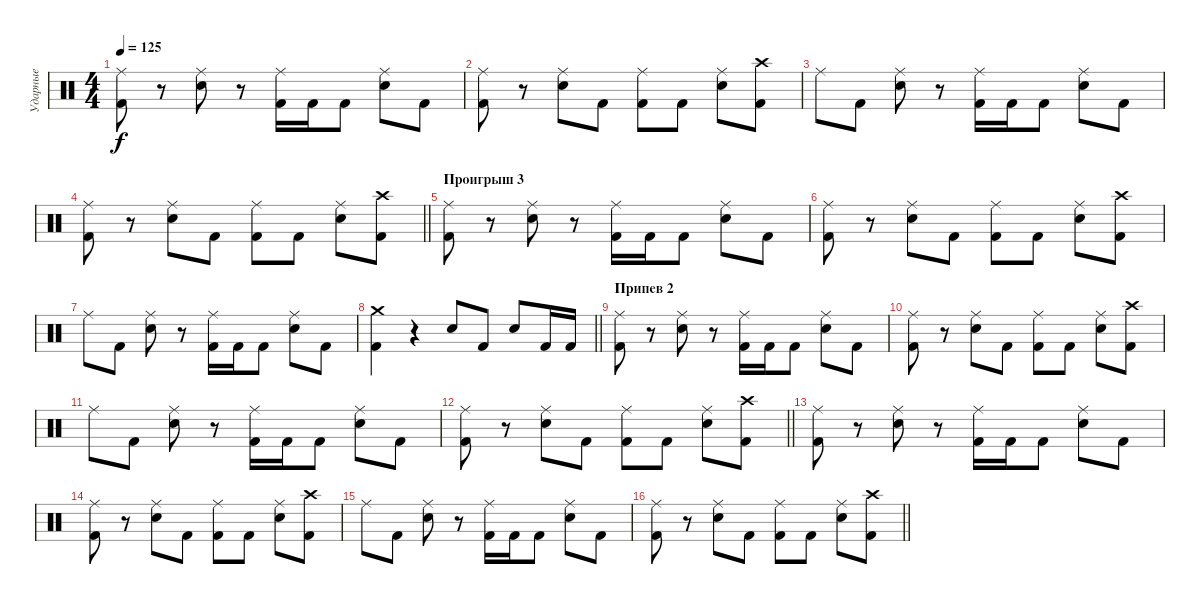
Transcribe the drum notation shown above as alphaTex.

\track ("Ударные" "Ударные") {instrument percussion}
\staff {score}
\articulation defaults
\ts (4 4)
\tempo 125
\clef neutral
\ks c
("Ride (middle)" "Kick (hit) 2").8{dy f} r.8 ("Ride (middle)" "Snare (hit) 2").8 r.8 ("Ride (middle)" "Kick (hit) 2").16 "Kick (hit) 2".16 "Kick (hit) 2".8 ("Ride (middle)" "Snare (hit) 2").8 "Kick (hit) 2".8 |
("Ride (middle)" "Kick (hit) 2").8 r.8 ("Ride (middle)" "Snare (hit) 2").8 "Kick (hit) 2".8 ("Ride (middle)" "Kick (hit) 2").8 "Kick (hit) 2".8 ("Ride (middle)" "Snare (hit) 2").8 ("Crash high (hit)" "Kick (hit) 2").8 |
"Ride (middle)".8 "Kick (hit) 2".8 ("Ride (middle)" "Snare (hit) 2").8 r.8 ("Ride (middle)" "Kick (hit) 2").16 "Kick (hit) 2".16 "Kick (hit) 2".8 ("Ride (middle)" "Snare (hit) 2").8 "Kick (hit) 2".8 |
\barLineRight lightlight
("Ride (middle)" "Kick (hit) 2").8 r.8 ("Ride (middle)" "Snare (hit) 2").8 "Kick (hit) 2".8 ("Ride (middle)" "Kick (hit) 2").8 "Kick (hit) 2".8 ("Ride (middle)" "Snare (hit) 2").8 ("Crash high (hit)" "Kick (hit) 2").8 |
\section ("" "Проигрыш 3")
("Ride (middle)" "Kick (hit) 2").8 r.8 ("Ride (middle)" "Snare (hit) 2").8 r.8 ("Ride (middle)" "Kick (hit) 2").16 "Kick (hit) 2".16 "Kick (hit) 2".8 ("Ride (middle)" "Snare (hit) 2").8 "Kick (hit) 2".8 |
("Ride (middle)" "Kick (hit) 2").8 r.8 ("Ride (middle)" "Snare (hit) 2").8 "Kick (hit) 2".8 ("Ride (middle)" "Kick (hit) 2").8 "Kick (hit) 2".8 ("Ride (middle)" "Snare (hit) 2").8 ("Crash high (hit)" "Kick (hit) 2").8 |
"Ride (middle)".8 "Kick (hit) 2".8 ("Ride (middle)" "Snare (hit) 2").8 r.8 ("Ride (middle)" "Kick (hit) 2").16 "Kick (hit) 2".16 "Kick (hit) 2".8 ("Ride (middle)" "Snare (hit) 2").8 "Kick (hit) 2".8 |
\barLineRight lightlight
("Kick (hit) 2" "Crash medium (hit)").4 r.4 "Snare (hit) 2".8 "Kick (hit) 2".8 "Snare (hit) 2".8 "Kick (hit) 2".16 "Kick (hit) 2".16 |
\section ("" "Припев 2")
("Ride (middle)" "Kick (hit) 2").8 r.8 ("Ride (middle)" "Snare (hit) 2").8 r.8 ("Ride (middle)" "Kick (hit) 2").16 "Kick (hit) 2".16 "Kick (hit) 2".8 ("Ride (middle)" "Snare (hit) 2").8 "Kick (hit) 2".8 |
("Ride (middle)" "Kick (hit) 2").8 r.8 ("Ride (middle)" "Snare (hit) 2").8 "Kick (hit) 2".8 ("Ride (middle)" "Kick (hit) 2").8 "Kick (hit) 2".8 ("Ride (middle)" "Snare (hit) 2").8 ("Crash high (hit)" "Kick (hit) 2").8 |
"Ride (middle)".8 "Kick (hit) 2".8 ("Ride (middle)" "Snare (hit) 2").8 r.8 ("Ride (middle)" "Kick (hit) 2").16 "Kick (hit) 2".16 "Kick (hit) 2".8 ("Ride (middle)" "Snare (hit) 2").8 "Kick (hit) 2".8 |
\barLineRight lightlight
("Ride (middle)" "Kick (hit) 2").8 r.8 ("Ride (middle)" "Snare (hit) 2").8 "Kick (hit) 2".8 ("Ride (middle)" "Kick (hit) 2").8 "Kick (hit) 2".8 ("Ride (middle)" "Snare (hit) 2").8 ("Crash high (hit)" "Kick (hit) 2").8 |
("Ride (middle)" "Kick (hit) 2").8 r.8 ("Ride (middle)" "Snare (hit) 2").8 r.8 ("Ride (middle)" "Kick (hit) 2").16 "Kick (hit) 2".16 "Kick (hit) 2".8 ("Ride (middle)" "Snare (hit) 2").8 "Kick (hit) 2".8 |
("Ride (middle)" "Kick (hit) 2").8 r.8 ("Ride (middle)" "Snare (hit) 2").8 "Kick (hit) 2".8 ("Ride (middle)" "Kick (hit) 2").8 "Kick (hit) 2".8 ("Ride (middle)" "Snare (hit) 2").8 ("Crash high (hit)" "Kick (hit) 2").8 |
"Ride (middle)".8 "Kick (hit) 2".8 ("Ride (middle)" "Snare (hit) 2").8 r.8 ("Ride (middle)" "Kick (hit) 2").16 "Kick (hit) 2".16 "Kick (hit) 2".8 ("Ride (middle)" "Snare (hit) 2").8 "Kick (hit) 2".8 |
\barLineRight lightlight
("Ride (middle)" "Kick (hit) 2").8 r.8 ("Ride (middle)" "Snare (hit) 2").8 "Kick (hit) 2".8 ("Ride (middle)" "Kick (hit) 2").8 "Kick (hit) 2".8 ("Ride (middle)" "Snare (hit) 2").8 ("Crash high (hit)" "Kick (hit) 2").8
